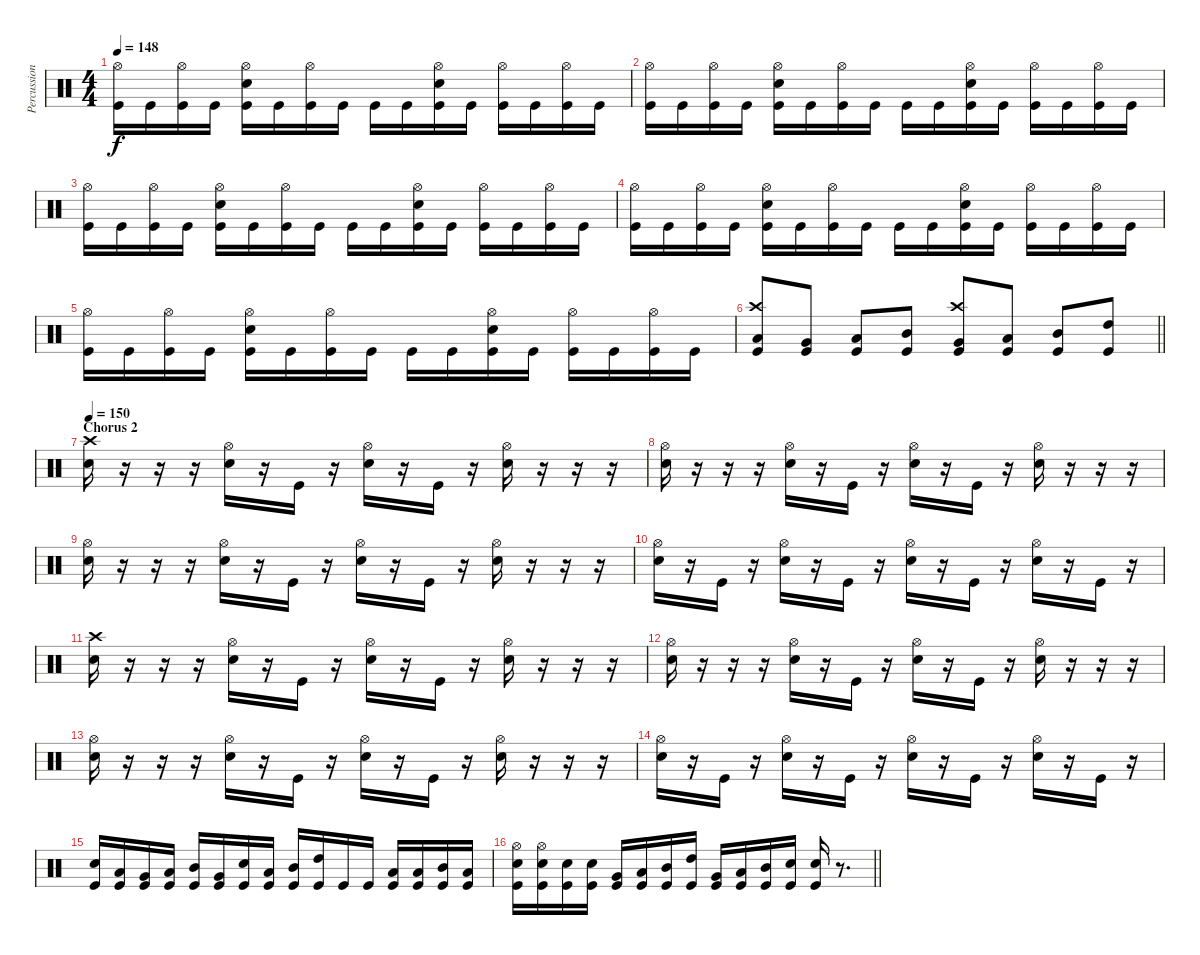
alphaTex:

\track ("Percussion" "Percussion") {instrument percussion}
\staff {score}
\articulation defaults
\ts (4 4)
\tempo 148
\clef neutral
\ks c
("Hi-Hat (open)" "Kick (hit)").16{dy f} "Kick (hit)".16 ("Hi-Hat (open)" "Kick (hit)").16 "Kick (hit)".16 ("Hi-Hat (open)" "Snare (hit) 2" "Kick (hit)").16 "Kick (hit)".16 ("Hi-Hat (open)" "Kick (hit)").16 "Kick (hit)".16 "Kick (hit)".16 "Kick (hit)".16 ("Hi-Hat (open)" "Snare (hit) 2" "Kick (hit)").16 "Kick (hit)".16 ("Hi-Hat (open)" "Kick (hit)").16 "Kick (hit)".16 ("Hi-Hat (open)" "Kick (hit)").16 "Kick (hit)".16 |
("Hi-Hat (open)" "Kick (hit)").16 "Kick (hit)".16 ("Hi-Hat (open)" "Kick (hit)").16 "Kick (hit)".16 ("Hi-Hat (open)" "Snare (hit) 2" "Kick (hit)").16 "Kick (hit)".16 ("Hi-Hat (open)" "Kick (hit)").16 "Kick (hit)".16 "Kick (hit)".16 "Kick (hit)".16 ("Hi-Hat (open)" "Snare (hit) 2" "Kick (hit)").16 "Kick (hit)".16 ("Hi-Hat (open)" "Kick (hit)").16 "Kick (hit)".16 ("Hi-Hat (open)" "Kick (hit)").16 "Kick (hit)".16 |
("Hi-Hat (open)" "Kick (hit)").16 "Kick (hit)".16 ("Hi-Hat (open)" "Kick (hit)").16 "Kick (hit)".16 ("Hi-Hat (open)" "Snare (hit) 2" "Kick (hit)").16 "Kick (hit)".16 ("Hi-Hat (open)" "Kick (hit)").16 "Kick (hit)".16 "Kick (hit)".16 "Kick (hit)".16 ("Hi-Hat (open)" "Snare (hit) 2" "Kick (hit)").16 "Kick (hit)".16 ("Hi-Hat (open)" "Kick (hit)").16 "Kick (hit)".16 ("Hi-Hat (open)" "Kick (hit)").16 "Kick (hit)".16 |
("Hi-Hat (open)" "Kick (hit)").16 "Kick (hit)".16 ("Hi-Hat (open)" "Kick (hit)").16 "Kick (hit)".16 ("Hi-Hat (open)" "Snare (hit) 2" "Kick (hit)").16 "Kick (hit)".16 ("Hi-Hat (open)" "Kick (hit)").16 "Kick (hit)".16 "Kick (hit)".16 "Kick (hit)".16 ("Hi-Hat (open)" "Snare (hit) 2" "Kick (hit)").16 "Kick (hit)".16 ("Hi-Hat (open)" "Kick (hit)").16 "Kick (hit)".16 ("Hi-Hat (open)" "Kick (hit)").16 "Kick (hit)".16 |
("Hi-Hat (open)" "Kick (hit)").16 "Kick (hit)".16 ("Hi-Hat (open)" "Kick (hit)").16 "Kick (hit)".16 ("Hi-Hat (open)" "Snare (hit) 2" "Kick (hit)").16 "Kick (hit)".16 ("Hi-Hat (open)" "Kick (hit)").16 "Kick (hit)".16 "Kick (hit)".16 "Kick (hit)".16 ("Hi-Hat (open)" "Snare (hit) 2" "Kick (hit)").16 "Kick (hit)".16 ("Hi-Hat (open)" "Kick (hit)").16 "Kick (hit)".16 ("Hi-Hat (open)" "Kick (hit)").16 "Kick (hit)".16 |
\barLineRight lightlight
("Crash high (hit)" "Low Floor Tom (hit)" "Kick (hit)").8 ("Very Low Tom (hit)" "Kick (hit)").8 ("Low Tom (hit)" "Kick (hit)").8 ("Mid Tom (hit)" "Kick (hit)").8 ("Crash high (hit)" "Very Low Tom (hit)" "Kick (hit)").8 ("Low Tom (hit)" "Kick (hit)").8 ("Mid Tom (hit)" "Kick (hit)").8 ("High Tom (hit)" "Kick (hit)").8 |
\section ("" "Chorus 2")
\tempo 150
("Crash high (hit)" "Snare (hit) 2").16 r.16 r.16 r.16 ("Hi-Hat (open)" "Snare (hit) 2").16 r.16 "Kick (hit)".16 r.16 ("Hi-Hat (open)" "Snare (hit) 2").16 r.16 "Kick (hit)".16 r.16 ("Hi-Hat (open)" "Snare (hit) 2").16 r.16 r.16 r.16 |
("Hi-Hat (open)" "Snare (hit) 2").16 r.16 r.16 r.16 ("Hi-Hat (open)" "Snare (hit) 2").16 r.16 "Kick (hit)".16 r.16 ("Hi-Hat (open)" "Snare (hit) 2").16 r.16 "Kick (hit)".16 r.16 ("Hi-Hat (open)" "Snare (hit) 2").16 r.16 r.16 r.16 |
("Hi-Hat (open)" "Snare (hit) 2").16 r.16 r.16 r.16 ("Hi-Hat (open)" "Snare (hit) 2").16 r.16 "Kick (hit)".16 r.16 ("Hi-Hat (open)" "Snare (hit) 2").16 r.16 "Kick (hit)".16 r.16 ("Hi-Hat (open)" "Snare (hit) 2").16 r.16 r.16 r.16 |
("Hi-Hat (open)" "Snare (hit) 2").16 r.16 "Kick (hit)".16 r.16 ("Hi-Hat (open)" "Snare (hit) 2").16 r.16 "Kick (hit)".16 r.16 ("Hi-Hat (open)" "Snare (hit) 2").16 r.16 "Kick (hit)".16 r.16 ("Hi-Hat (open)" "Snare (hit) 2").16 r.16 "Kick (hit)".16 r.16 |
("Crash high (hit)" "Snare (hit) 2").16 r.16 r.16 r.16 ("Hi-Hat (open)" "Snare (hit) 2").16 r.16 "Kick (hit)".16 r.16 ("Hi-Hat (open)" "Snare (hit) 2").16 r.16 "Kick (hit)".16 r.16 ("Hi-Hat (open)" "Snare (hit) 2").16 r.16 r.16 r.16 |
("Hi-Hat (open)" "Snare (hit) 2").16 r.16 r.16 r.16 ("Hi-Hat (open)" "Snare (hit) 2").16 r.16 "Kick (hit)".16 r.16 ("Hi-Hat (open)" "Snare (hit) 2").16 r.16 "Kick (hit)".16 r.16 ("Hi-Hat (open)" "Snare (hit) 2").16 r.16 r.16 r.16 |
("Hi-Hat (open)" "Snare (hit) 2").16 r.16 r.16 r.16 ("Hi-Hat (open)" "Snare (hit) 2").16 r.16 "Kick (hit)".16 r.16 ("Hi-Hat (open)" "Snare (hit) 2").16 r.16 "Kick (hit)".16 r.16 ("Hi-Hat (open)" "Snare (hit) 2").16 r.16 r.16 r.16 |
("Hi-Hat (open)" "Snare (hit) 2").16 r.16 "Kick (hit)".16 r.16 ("Hi-Hat (open)" "Snare (hit) 2").16 r.16 "Kick (hit)".16 r.16 ("Hi-Hat (open)" "Snare (hit) 2").16 r.16 "Kick (hit)".16 r.16 ("Hi-Hat (open)" "Snare (hit) 2").16 r.16 "Kick (hit)".16 r.16 |
("Snare (hit) 2" "Kick (hit)").16 ("Low Floor Tom (hit)" "Kick (hit)").16 ("Very Low Tom (hit)" "Kick (hit)").16 ("Low Tom (hit)" "Kick (hit)").16 ("Mid Tom (hit)" "Kick (hit)").16 ("Very Low Tom (hit)" "Kick (hit)").16 ("Snare (hit) 2" "Kick (hit)").16 ("Low Tom (hit)" "Kick (hit)").16 ("Mid Tom (hit)" "Kick (hit)").16 ("High Tom (hit)" "Kick (hit)").16 "Kick (hit)".16 "Kick (hit)".16 ("Low Tom (hit)" "Kick (hit)").16 ("Low Tom (hit)" "Kick (hit)").16 ("Mid Tom (hit)" "Kick (hit)").16 ("Low Tom (hit)" "Kick (hit)").16 |
\barLineRight lightlight
("Hi-Hat (open)" "Snare (hit) 2" "Kick (hit)").16 ("Hi-Hat (open)" "Snare (hit) 2" "Kick (hit)").16 ("Snare (hit) 2" "Kick (hit)").16 ("Snare (hit) 2" "Kick (hit)").16 ("Very Low Tom (hit)" "Kick (hit)").16 ("Low Tom (hit)" "Kick (hit)").16 ("Mid Tom (hit)" "Kick (hit)").16 ("High Tom (hit)" "Kick (hit)").16 ("Very Low Tom (hit)" "Kick (hit)").16 ("Low Tom (hit)" "Kick (hit)").16 ("Mid Tom (hit)" "Kick (hit)").16 ("Snare (hit) 2" "Kick (hit)").16 ("Snare (hit) 2" "Kick (hit)").16 r.8{d}
